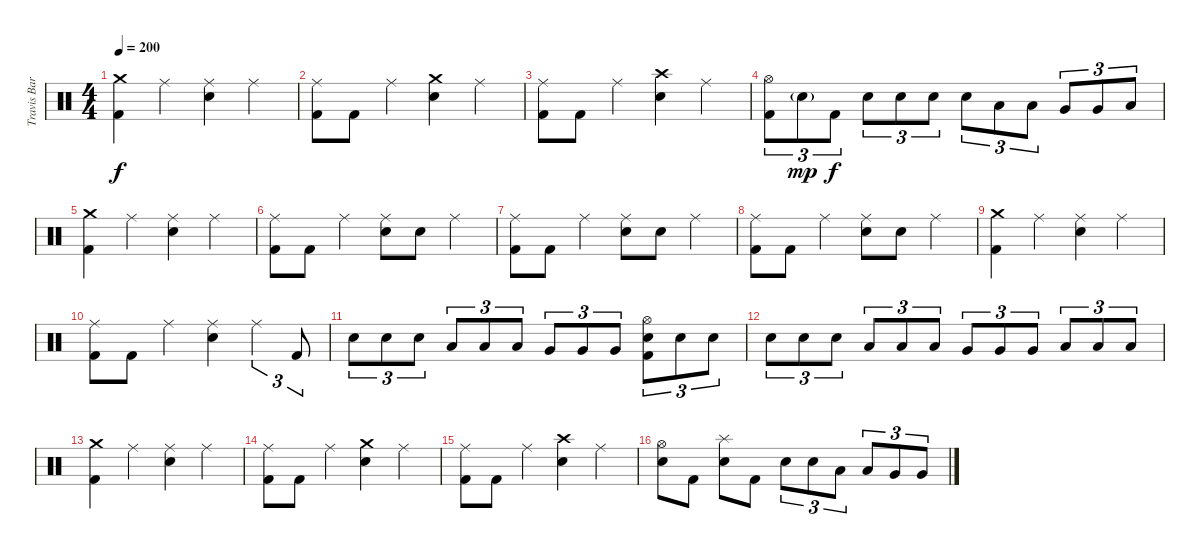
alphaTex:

\track ("Travis Barker - Drums" "Travis Bar") {instrument percussion}
\staff {score}
\articulation defaults
\ts (4 4)
\tempo 200
\clef neutral
\ks c
("Crash medium (hit)" "Kick (hit) 2").4{dy f} "Ride (middle)".4 ("Ride (middle)" "Electric Snare (hit)").4 "Ride (middle)".4 |
("Ride (middle)" "Kick (hit) 2").8 "Kick (hit) 2".8 "Ride (middle)".4 ("Crash medium (hit)" "Electric Snare (hit)").4 "Ride (middle)".4 |
("Ride (middle)" "Kick (hit) 2").8 "Kick (hit) 2".8 "Ride (middle)".4 ("Crash high (hit)" "Electric Snare (hit)").4 "Ride (middle)".4 |
("Hi-Hat (open)" "Kick (hit) 2").8{tu (3 2)} "Electric Snare (hit)"{g}.8{tu (3 2) dy mp} "Kick (hit) 2".8{tu (3 2) dy f} "Electric Snare (hit)".8{tu (3 2)} "Electric Snare (hit)".8{tu (3 2)} "Electric Snare (hit)".8{tu (3 2)} "Electric Snare (hit)".8{tu (3 2)} "Low Tom (hit)".8{tu (3 2)} "Low Tom (hit)".8{tu (3 2)} "Very Low Tom (hit)".8{tu (3 2)} "Very Low Tom (hit)".8{tu (3 2)} "Low Floor Tom (hit)".8{tu (3 2)} |
("Crash medium (hit)" "Kick (hit) 2").4 "Ride (middle)".4 ("Ride (middle)" "Electric Snare (hit)").4 "Ride (middle)".4 |
("Ride (middle)" "Kick (hit) 2").8 "Kick (hit) 2".8 "Ride (middle)".4 ("Ride (middle)" "Electric Snare (hit)").8 "Electric Snare (hit)".8 "Ride (middle)".4 |
("Ride (middle)" "Kick (hit) 2").8 "Kick (hit) 2".8 "Ride (middle)".4 ("Ride (middle)" "Electric Snare (hit)").8 "Electric Snare (hit)".8 "Ride (middle)".4 |
("Ride (middle)" "Kick (hit) 2").8 "Kick (hit) 2".8 "Ride (middle)".4 ("Ride (middle)" "Electric Snare (hit)").8 "Electric Snare (hit)".8 "Ride (middle)".4 |
("Crash medium (hit)" "Kick (hit) 2").4 "Ride (middle)".4 ("Ride (middle)" "Electric Snare (hit)").4 "Ride (middle)".4 |
("Ride (middle)" "Kick (hit) 2").8 "Kick (hit) 2".8 "Ride (middle)".4 ("Ride (middle)" "Electric Snare (hit)").4 "Ride (middle)".4{tu (3 2)} "Kick (hit) 2".8{tu (3 2)} |
"Electric Snare (hit)".8{tu (3 2)} "Electric Snare (hit)".8{tu (3 2)} "Electric Snare (hit)".8{tu (3 2)} "Low Tom (hit)".8{tu (3 2)} "Low Tom (hit)".8{tu (3 2)} "Low Tom (hit)".8{tu (3 2)} "Very Low Tom (hit)".8{tu (3 2)} "Very Low Tom (hit)".8{tu (3 2)} "Very Low Tom (hit)".8{tu (3 2)} ("Hi-Hat (open)" "Electric Snare (hit)" "Kick (hit) 2").8{tu (3 2)} "Electric Snare (hit)".8{tu (3 2)} "Electric Snare (hit)".8{tu (3 2)} |
"Electric Snare (hit)".8{tu (3 2)} "Electric Snare (hit)".8{tu (3 2)} "Electric Snare (hit)".8{tu (3 2)} "Low Tom (hit)".8{tu (3 2)} "Low Tom (hit)".8{tu (3 2)} "Low Tom (hit)".8{tu (3 2)} "Very Low Tom (hit)".8{tu (3 2)} "Very Low Tom (hit)".8{tu (3 2)} "Very Low Tom (hit)".8{tu (3 2)} "Low Floor Tom (hit)".8{tu (3 2)} "Low Floor Tom (hit)".8{tu (3 2)} "Low Floor Tom (hit)".8{tu (3 2)} |
("Crash medium (hit)" "Kick (hit) 2").4 "Ride (middle)".4 ("Ride (middle)" "Electric Snare (hit)").4 "Ride (middle)".4 |
("Ride (middle)" "Kick (hit) 2").8 "Kick (hit) 2".8 "Ride (middle)".4 ("Crash medium (hit)" "Electric Snare (hit)").4 "Ride (middle)".4 |
("Ride (middle)" "Kick (hit) 2").8 "Kick (hit) 2".8 "Ride (middle)".4 ("Crash high (hit)" "Electric Snare (hit)").4 "Ride (middle)".4 |
("Hi-Hat (open)" "Electric Snare (hit)").8 "Kick (hit) 2".8 ("Splash (hit)" "Electric Snare (hit)").8 "Kick (hit) 2".8 "Electric Snare (hit)".8{tu (3 2)} "Electric Snare (hit)".8{tu (3 2)} "Low Tom (hit)".8{tu (3 2)} "Low Tom (hit)".8{tu (3 2)} "Very Low Tom (hit)".8{tu (3 2)} "Very Low Tom (hit)".8{tu (3 2)}
